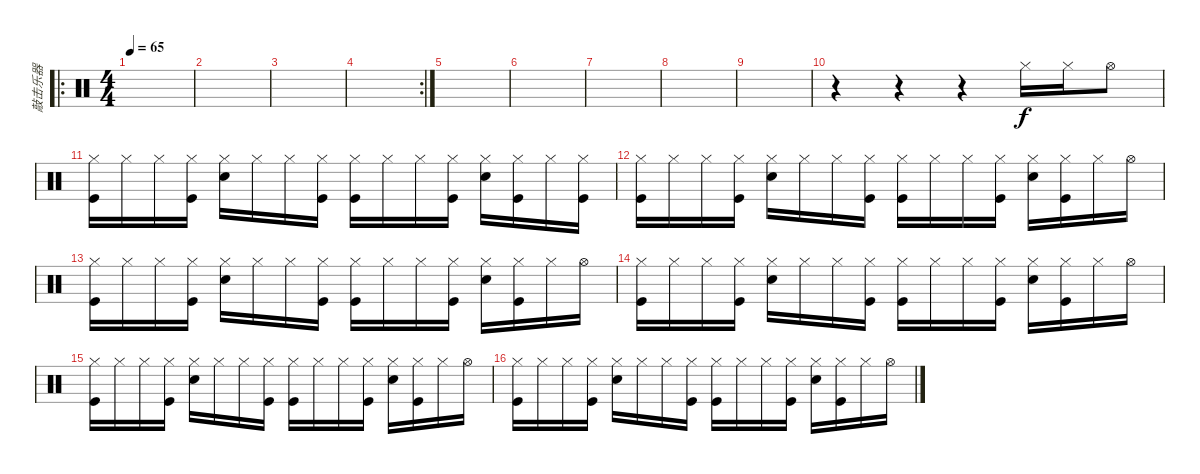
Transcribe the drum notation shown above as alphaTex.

\track ("敲击乐器" "敲击乐器") {instrument percussion}
\staff {score}
\articulation defaults
\ro
\ts (4 4)
\tempo 65
\clef neutral
\ks c
|
|
|
\rc 2
|
|
|
|
|
|
r.4 r.4 r.4 "Hi-Hat (closed)".16{volume 9} "Hi-Hat (closed)".16 "Hi-Hat (open)".8 |
("Hi-Hat (closed)" "Kick (hit)").16{volume 8} "Hi-Hat (closed)".16 "Hi-Hat (closed)".16 ("Hi-Hat (closed)" "Kick (hit)").16 ("Hi-Hat (closed)" "Electric Snare (hit)").16 "Hi-Hat (closed)".16 "Hi-Hat (closed)".16 ("Hi-Hat (closed)" "Kick (hit)").16 ("Hi-Hat (closed)" "Kick (hit)").16{volume 10} "Hi-Hat (closed)".16 "Hi-Hat (closed)".16 ("Hi-Hat (closed)" "Kick (hit)").16 ("Hi-Hat (closed)" "Electric Snare (hit)").16 ("Hi-Hat (closed)" "Kick (hit)").16 "Hi-Hat (closed)".16 ("Hi-Hat (closed)" "Kick (hit)").16 |
("Hi-Hat (closed)" "Kick (hit)").16{volume 12} "Hi-Hat (closed)".16 "Hi-Hat (closed)".16 ("Hi-Hat (closed)" "Kick (hit)").16 ("Hi-Hat (closed)" "Electric Snare (hit)").16 "Hi-Hat (closed)".16 "Hi-Hat (closed)".16 ("Hi-Hat (closed)" "Kick (hit)").16 ("Hi-Hat (closed)" "Kick (hit)").16 "Hi-Hat (closed)".16 "Hi-Hat (closed)".16 ("Hi-Hat (closed)" "Kick (hit)").16 ("Hi-Hat (closed)" "Electric Snare (hit)").16 ("Hi-Hat (closed)" "Kick (hit)").16 "Hi-Hat (closed)".16 "Hi-Hat (open)".16 |
("Hi-Hat (closed)" "Kick (hit)").16 "Hi-Hat (closed)".16 "Hi-Hat (closed)".16 ("Hi-Hat (closed)" "Kick (hit)").16 ("Hi-Hat (closed)" "Electric Snare (hit)").16 "Hi-Hat (closed)".16 "Hi-Hat (closed)".16 ("Hi-Hat (closed)" "Kick (hit)").16 ("Hi-Hat (closed)" "Kick (hit)").16 "Hi-Hat (closed)".16 "Hi-Hat (closed)".16 ("Hi-Hat (closed)" "Kick (hit)").16 ("Hi-Hat (closed)" "Electric Snare (hit)").16 ("Hi-Hat (closed)" "Kick (hit)").16 "Hi-Hat (closed)".16 "Hi-Hat (open)".16 |
("Hi-Hat (closed)" "Kick (hit)").16 "Hi-Hat (closed)".16 "Hi-Hat (closed)".16 ("Hi-Hat (closed)" "Kick (hit)").16 ("Hi-Hat (closed)" "Electric Snare (hit)").16 "Hi-Hat (closed)".16 "Hi-Hat (closed)".16 ("Hi-Hat (closed)" "Kick (hit)").16 ("Hi-Hat (closed)" "Kick (hit)").16 "Hi-Hat (closed)".16 "Hi-Hat (closed)".16 ("Hi-Hat (closed)" "Kick (hit)").16 ("Hi-Hat (closed)" "Electric Snare (hit)").16 ("Hi-Hat (closed)" "Kick (hit)").16 "Hi-Hat (closed)".16 "Hi-Hat (open)".16 |
("Hi-Hat (closed)" "Kick (hit)").16 "Hi-Hat (closed)".16 "Hi-Hat (closed)".16 ("Hi-Hat (closed)" "Kick (hit)").16 ("Hi-Hat (closed)" "Electric Snare (hit)").16 "Hi-Hat (closed)".16 "Hi-Hat (closed)".16 ("Hi-Hat (closed)" "Kick (hit)").16 ("Hi-Hat (closed)" "Kick (hit)").16 "Hi-Hat (closed)".16 "Hi-Hat (closed)".16 ("Hi-Hat (closed)" "Kick (hit)").16 ("Hi-Hat (closed)" "Electric Snare (hit)").16 ("Hi-Hat (closed)" "Kick (hit)").16 "Hi-Hat (closed)".16 "Hi-Hat (open)".16 |
("Hi-Hat (closed)" "Kick (hit)").16 "Hi-Hat (closed)".16 "Hi-Hat (closed)".16 ("Hi-Hat (closed)" "Kick (hit)").16 ("Hi-Hat (closed)" "Electric Snare (hit)").16 "Hi-Hat (closed)".16 "Hi-Hat (closed)".16 ("Hi-Hat (closed)" "Kick (hit)").16 ("Hi-Hat (closed)" "Kick (hit)").16 "Hi-Hat (closed)".16 "Hi-Hat (closed)".16 ("Hi-Hat (closed)" "Kick (hit)").16 ("Hi-Hat (closed)" "Electric Snare (hit)").16 ("Hi-Hat (closed)" "Kick (hit)").16 "Hi-Hat (closed)".16 "Hi-Hat (open)".16
